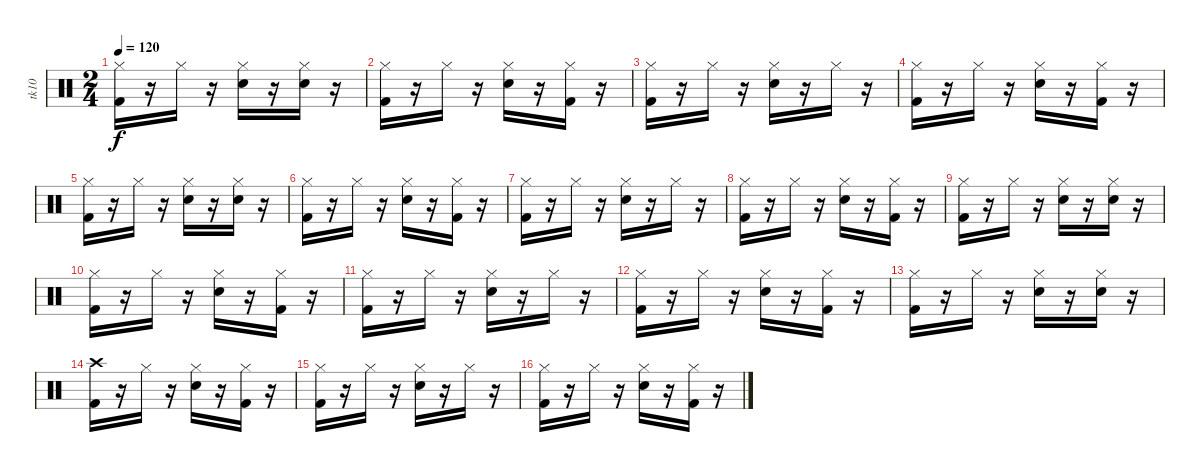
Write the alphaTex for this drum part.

\track ("tk10" "tk10") {instrument percussion}
\staff {score}
\articulation defaults
\ts (2 4)
\tempo 120
\clef neutral
\ks c
("Kick (hit) 2" "Hi-Hat (closed)").16{dy f} r.16 "Hi-Hat (closed)".16 r.16 ("Snare (hit) 2" "Hi-Hat (closed)").16 r.16 ("Hi-Hat (closed)" "Snare (hit) 2").16 r.16 |
("Kick (hit) 2" "Hi-Hat (closed)").16 r.16 "Hi-Hat (closed)".16 r.16 ("Hi-Hat (closed)" "Snare (hit) 2").16 r.16 ("Hi-Hat (closed)" "Kick (hit) 2").16 r.16 |
("Hi-Hat (closed)" "Kick (hit) 2").16 r.16 "Hi-Hat (closed)".16 r.16 ("Hi-Hat (closed)" "Snare (hit) 2").16 r.16 "Hi-Hat (closed)".16 r.16 |
("Kick (hit) 2" "Hi-Hat (closed)").16 r.16 "Hi-Hat (closed)".16 r.16 ("Snare (hit) 2" "Hi-Hat (closed)").16 r.16 ("Hi-Hat (closed)" "Kick (hit) 2").16 r.16 |
("Hi-Hat (closed)" "Kick (hit) 2").16 r.16 "Hi-Hat (closed)".16 r.16 ("Hi-Hat (closed)" "Snare (hit) 2").16 r.16 ("Snare (hit) 2" "Hi-Hat (closed)").16 r.16 |
("Hi-Hat (closed)" "Kick (hit) 2").16 r.16 "Hi-Hat (closed)".16 r.16 ("Hi-Hat (closed)" "Snare (hit) 2").16 r.16 ("Kick (hit) 2" "Hi-Hat (closed)").16 r.16 |
("Kick (hit) 2" "Hi-Hat (closed)").16 r.16 "Hi-Hat (closed)".16 r.16 ("Hi-Hat (closed)" "Snare (hit) 2").16 r.16 "Hi-Hat (closed)".16 r.16 |
("Kick (hit) 2" "Hi-Hat (closed)").16 r.16 "Hi-Hat (closed)".16 r.16 ("Snare (hit) 2" "Hi-Hat (closed)").16 r.16 ("Kick (hit) 2" "Hi-Hat (closed)").16 r.16 |
("Kick (hit) 2" "Hi-Hat (closed)").16 r.16 "Hi-Hat (closed)".16 r.16 ("Snare (hit) 2" "Hi-Hat (closed)").16 r.16 ("Hi-Hat (closed)" "Snare (hit) 2").16 r.16 |
("Hi-Hat (closed)" "Kick (hit) 2").16 r.16 "Hi-Hat (closed)".16 r.16 ("Hi-Hat (closed)" "Snare (hit) 2").16 r.16 ("Hi-Hat (closed)" "Kick (hit) 2").16 r.16 |
("Hi-Hat (closed)" "Kick (hit) 2").16 r.16 "Hi-Hat (closed)".16 r.16 ("Snare (hit) 2" "Hi-Hat (closed)").16 r.16 "Hi-Hat (closed)".16 r.16 |
("Hi-Hat (closed)" "Kick (hit) 2").16 r.16 "Hi-Hat (closed)".16 r.16 ("Hi-Hat (closed)" "Snare (hit) 2").16 r.16 ("Kick (hit) 2" "Hi-Hat (closed)").16 r.16 |
("Kick (hit) 2" "Hi-Hat (closed)").16 r.16 "Hi-Hat (closed)".16 r.16 ("Hi-Hat (closed)" "Snare (hit) 2").16 r.16 ("Hi-Hat (closed)" "Snare (hit) 2").16 r.16 |
("Crash high (hit)" "Kick (hit) 2").16 r.16 "Hi-Hat (closed)".16 r.16 ("Hi-Hat (closed)" "Snare (hit) 2").16 r.16 ("Kick (hit) 2" "Hi-Hat (closed)").16 r.16 |
("Kick (hit) 2" "Hi-Hat (closed)").16 r.16 "Hi-Hat (closed)".16 r.16 ("Hi-Hat (closed)" "Snare (hit) 2").16 r.16 "Hi-Hat (closed)".16 r.16 |
("Hi-Hat (closed)" "Kick (hit) 2").16 r.16 "Hi-Hat (closed)".16 r.16 ("Hi-Hat (closed)" "Snare (hit) 2").16 r.16 ("Hi-Hat (closed)" "Kick (hit) 2").16 r.16
